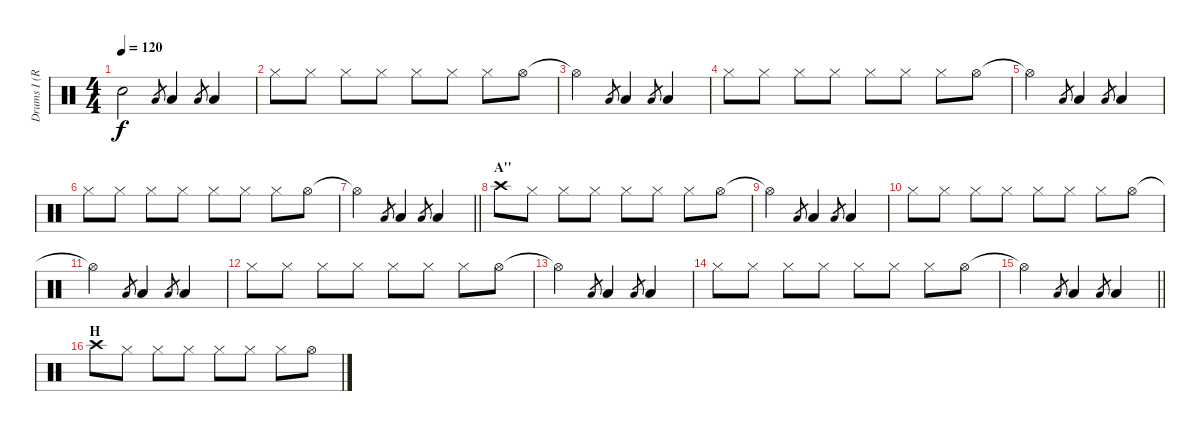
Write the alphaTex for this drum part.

\track ("Drums I (Ruka)" "Drums I (R") {instrument percussion}
\staff {score}
\articulation defaults
\ts (4 4)
\tempo 120
\clef neutral
\ks c "Snare (hit)"{t}.2{dy f} "Low Tom (hit)".8{gr} "Low Tom (hit)".4 "Low Tom (hit)".8{gr} "Low Tom (hit)".4
|
"Hi-Hat (closed)".8 "Hi-Hat (closed)".8 "Hi-Hat (closed)".8 "Hi-Hat (closed)".8 "Hi-Hat (closed)".8 "Hi-Hat (closed)".8 "Hi-Hat (closed)".8 "Hi-Hat (open)".8 |
"Hi-Hat (open)"{t}.2 "Low Tom (hit)".8{gr} "Low Tom (hit)".4 "Low Tom (hit)".8{gr} "Low Tom (hit)".4 |
"Hi-Hat (closed)".8 "Hi-Hat (closed)".8 "Hi-Hat (closed)".8 "Hi-Hat (closed)".8 "Hi-Hat (closed)".8 "Hi-Hat (closed)".8 "Hi-Hat (closed)".8 "Hi-Hat (open)".8 |
"Hi-Hat (open)"{t}.2 "Low Tom (hit)".8{gr} "Low Tom (hit)".4 "Low Tom (hit)".8{gr} "Low Tom (hit)".4 |
"Hi-Hat (closed)".8 "Hi-Hat (closed)".8 "Hi-Hat (closed)".8 "Hi-Hat (closed)".8 "Hi-Hat (closed)".8 "Hi-Hat (closed)".8 "Hi-Hat (closed)".8 "Hi-Hat (open)".8 |
\barLineRight lightlight "Hi-Hat (open)"{t}.2 "Low Tom (hit)".8{gr} "Low Tom (hit)".4 "Low Tom (hit)".8{gr} "Low Tom (hit)".4
|
\section ("" "A''")
"Crash high (hit)".8 "Hi-Hat (closed)".8 "Hi-Hat (closed)".8 "Hi-Hat (closed)".8 "Hi-Hat (closed)".8 "Hi-Hat (closed)".8 "Hi-Hat (closed)".8 "Hi-Hat (open)".8 |
"Hi-Hat (open)"{t}.2 "Low Tom (hit)".8{gr} "Low Tom (hit)".4 "Low Tom (hit)".8{gr} "Low Tom (hit)".4 |
"Hi-Hat (closed)".8 "Hi-Hat (closed)".8 "Hi-Hat (closed)".8 "Hi-Hat (closed)".8 "Hi-Hat (closed)".8 "Hi-Hat (closed)".8 "Hi-Hat (closed)".8 "Hi-Hat (open)".8 |
"Hi-Hat (open)"{t}.2 "Low Tom (hit)".8{gr} "Low Tom (hit)".4 "Low Tom (hit)".8{gr} "Low Tom (hit)".4 |
"Hi-Hat (closed)".8 "Hi-Hat (closed)".8 "Hi-Hat (closed)".8 "Hi-Hat (closed)".8 "Hi-Hat (closed)".8 "Hi-Hat (closed)".8 "Hi-Hat (closed)".8 "Hi-Hat (open)".8 |
"Hi-Hat (open)"{t}.2 "Low Tom (hit)".8{gr} "Low Tom (hit)".4 "Low Tom (hit)".8{gr} "Low Tom (hit)".4 |
"Hi-Hat (closed)".8 "Hi-Hat (closed)".8 "Hi-Hat (closed)".8 "Hi-Hat (closed)".8 "Hi-Hat (closed)".8 "Hi-Hat (closed)".8 "Hi-Hat (closed)".8 "Hi-Hat (open)".8 |
\barLineRight lightlight "Hi-Hat (open)"{t}.2 "Low Tom (hit)".8{gr} "Low Tom (hit)".4 "Low Tom (hit)".8{gr} "Low Tom (hit)".4
|
\section ("" "H")
"Crash high (hit)".8 "Hi-Hat (closed)".8 "Hi-Hat (closed)".8 "Hi-Hat (closed)".8 "Hi-Hat (closed)".8 "Hi-Hat (closed)".8 "Hi-Hat (closed)".8 "Hi-Hat (open)".8
